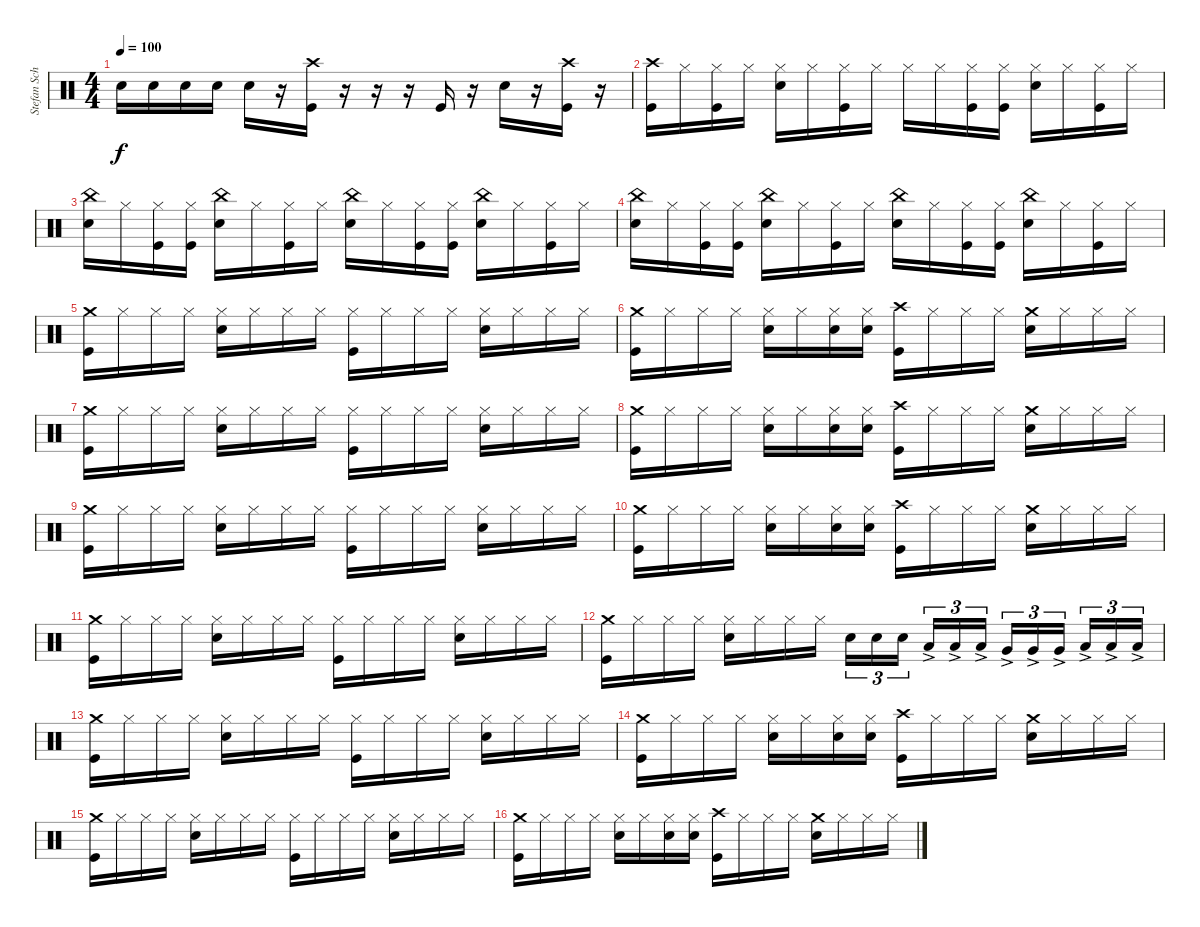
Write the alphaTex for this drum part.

\track ("Stefan Schwarzmann" "Stefan Sch") {instrument percussion}
\staff {score}
\articulation defaults
\ts (4 4)
\tempo 100
\clef neutral
\ks c "Snare (hit) 2".16{dy f} "Snare (hit) 2".16 "Snare (hit) 2".16 "Snare (hit) 2".16 "Snare (hit) 2".16
r.16 ("Kick (hit)" "Crash high (hit)").16 r.16 r.16 r.16 "Kick (hit)".16 r.16 "Snare (hit) 2".16 r.16 ("Kick (hit)" "Crash high (hit)").16 r.16 |
("Kick (hit)" "Crash high (hit)").16 "Hi-Hat (closed)".16 ("Hi-Hat (closed)" "Kick (hit)").16 "Hi-Hat (closed)".16 ("Snare (hit) 2" "Hi-Hat (closed)").16 "Hi-Hat (closed)".16 ("Hi-Hat (closed)" "Kick (hit)").16 "Hi-Hat (closed)".16 "Hi-Hat (closed)".16 "Hi-Hat (closed)".16 ("Hi-Hat (closed)" "Kick (hit)").16 ("Hi-Hat (closed)" "Kick (hit)").16 ("Snare (hit) 2" "Hi-Hat (closed)").16 "Hi-Hat (closed)".16 ("Hi-Hat (closed)" "Kick (hit)").16 "Hi-Hat (closed)".16 |
("Snare (hit) 2" "China (hit)").16 "Hi-Hat (closed)".16 ("Hi-Hat (closed)" "Kick (hit)").16 ("Hi-Hat (closed)" "Kick (hit)").16 ("Snare (hit) 2" "China (hit)").16 "Hi-Hat (closed)".16 ("Hi-Hat (closed)" "Kick (hit)").16 "Hi-Hat (closed)".16 ("Snare (hit) 2" "China (hit)").16 "Hi-Hat (closed)".16 ("Hi-Hat (closed)" "Kick (hit)").16 ("Hi-Hat (closed)" "Kick (hit)").16 ("Snare (hit) 2" "China (hit)").16 "Hi-Hat (closed)".16 ("Hi-Hat (closed)" "Kick (hit)").16 "Hi-Hat (closed)".16 |
("Snare (hit) 2" "China (hit)").16 "Hi-Hat (closed)".16 ("Hi-Hat (closed)" "Kick (hit)").16 ("Hi-Hat (closed)" "Kick (hit)").16 ("Snare (hit) 2" "China (hit)").16 "Hi-Hat (closed)".16 ("Hi-Hat (closed)" "Kick (hit)").16 "Hi-Hat (closed)".16 ("Snare (hit) 2" "China (hit)").16 "Hi-Hat (closed)".16 ("Hi-Hat (closed)" "Kick (hit)").16 ("Hi-Hat (closed)" "Kick (hit)").16 ("Snare (hit) 2" "China (hit)").16 "Hi-Hat (closed)".16 ("Hi-Hat (closed)" "Kick (hit)").16 "Hi-Hat (closed)".16 |
("Kick (hit)" "Crash medium (hit)").16 "Hi-Hat (closed)".16 "Hi-Hat (closed)".16 "Hi-Hat (closed)".16 ("Snare (hit) 2" "Hi-Hat (closed)").16 "Hi-Hat (closed)".16 "Hi-Hat (closed)".16 "Hi-Hat (closed)".16 ("Kick (hit)" "Hi-Hat (closed)").16 "Hi-Hat (closed)".16 "Hi-Hat (closed)".16 "Hi-Hat (closed)".16 ("Snare (hit) 2" "Hi-Hat (closed)").16 "Hi-Hat (closed)".16 "Hi-Hat (closed)".16 "Hi-Hat (closed)".16 |
("Kick (hit)" "Crash medium (hit)").16 "Hi-Hat (closed)".16 "Hi-Hat (closed)".16 "Hi-Hat (closed)".16 ("Snare (hit) 2" "Hi-Hat (closed)").16 "Hi-Hat (closed)".16 ("Hi-Hat (closed)" "Snare (hit) 2").16 ("Hi-Hat (closed)" "Snare (hit) 2").16 ("Kick (hit)" "Crash high (hit)").16 "Hi-Hat (closed)".16 "Hi-Hat (closed)".16 "Hi-Hat (closed)".16 ("Snare (hit) 2" "Crash medium (hit)").16 "Hi-Hat (closed)".16 "Hi-Hat (closed)".16 "Hi-Hat (closed)".16 |
("Kick (hit)" "Crash medium (hit)").16 "Hi-Hat (closed)".16 "Hi-Hat (closed)".16 "Hi-Hat (closed)".16 ("Snare (hit) 2" "Hi-Hat (closed)").16 "Hi-Hat (closed)".16 "Hi-Hat (closed)".16 "Hi-Hat (closed)".16 ("Kick (hit)" "Hi-Hat (closed)").16 "Hi-Hat (closed)".16 "Hi-Hat (closed)".16 "Hi-Hat (closed)".16 ("Snare (hit) 2" "Hi-Hat (closed)").16 "Hi-Hat (closed)".16 "Hi-Hat (closed)".16 "Hi-Hat (closed)".16 |
("Kick (hit)" "Crash medium (hit)").16 "Hi-Hat (closed)".16 "Hi-Hat (closed)".16 "Hi-Hat (closed)".16 ("Snare (hit) 2" "Hi-Hat (closed)").16 "Hi-Hat (closed)".16 ("Hi-Hat (closed)" "Snare (hit) 2").16 ("Hi-Hat (closed)" "Snare (hit) 2").16 ("Kick (hit)" "Crash high (hit)").16 "Hi-Hat (closed)".16 "Hi-Hat (closed)".16 "Hi-Hat (closed)".16 ("Snare (hit) 2" "Crash medium (hit)").16 "Hi-Hat (closed)".16 "Hi-Hat (closed)".16 "Hi-Hat (closed)".16 |
("Kick (hit)" "Crash medium (hit)").16 "Hi-Hat (closed)".16 "Hi-Hat (closed)".16 "Hi-Hat (closed)".16 ("Snare (hit) 2" "Hi-Hat (closed)").16 "Hi-Hat (closed)".16 "Hi-Hat (closed)".16 "Hi-Hat (closed)".16 ("Kick (hit)" "Hi-Hat (closed)").16 "Hi-Hat (closed)".16 "Hi-Hat (closed)".16 "Hi-Hat (closed)".16 ("Snare (hit) 2" "Hi-Hat (closed)").16 "Hi-Hat (closed)".16 "Hi-Hat (closed)".16 "Hi-Hat (closed)".16 |
("Kick (hit)" "Crash medium (hit)").16 "Hi-Hat (closed)".16 "Hi-Hat (closed)".16 "Hi-Hat (closed)".16 ("Snare (hit) 2" "Hi-Hat (closed)").16 "Hi-Hat (closed)".16 ("Hi-Hat (closed)" "Snare (hit) 2").16 ("Hi-Hat (closed)" "Snare (hit) 2").16 ("Kick (hit)" "Crash high (hit)").16 "Hi-Hat (closed)".16 "Hi-Hat (closed)".16 "Hi-Hat (closed)".16 ("Snare (hit) 2" "Crash medium (hit)").16 "Hi-Hat (closed)".16 "Hi-Hat (closed)".16 "Hi-Hat (closed)".16 |
("Kick (hit)" "Crash medium (hit)").16 "Hi-Hat (closed)".16 "Hi-Hat (closed)".16 "Hi-Hat (closed)".16 ("Snare (hit) 2" "Hi-Hat (closed)").16 "Hi-Hat (closed)".16 "Hi-Hat (closed)".16 "Hi-Hat (closed)".16 ("Kick (hit)" "Hi-Hat (closed)").16 "Hi-Hat (closed)".16 "Hi-Hat (closed)".16 "Hi-Hat (closed)".16 ("Snare (hit) 2" "Hi-Hat (closed)").16 "Hi-Hat (closed)".16 "Hi-Hat (closed)".16 "Hi-Hat (closed)".16 |
("Kick (hit)" "Crash medium (hit)").16 "Hi-Hat (closed)".16 "Hi-Hat (closed)".16 "Hi-Hat (closed)".16 ("Snare (hit) 2" "Hi-Hat (closed)").16 "Hi-Hat (closed)".16 "Hi-Hat (closed)".16 "Hi-Hat (closed)".16 "Snare (hit) 2".16{tu (3 2)} "Snare (hit) 2".16{tu (3 2)} "Snare (hit) 2".16{tu (3 2)} "Low Tom (hit)"{ac}.16{tu (3 2)} "Low Tom (hit)"{ac}.16{tu (3 2)} "Low Tom (hit)"{ac}.16{tu (3 2)} "Very Low Tom (hit)"{ac}.16{tu (3 2)} "Very Low Tom (hit)"{ac}.16{tu (3 2)} "Very Low Tom (hit)"{ac}.16{tu (3 2)} "Low Floor Tom (hit)"{ac}.16{tu (3 2)} "Low Floor Tom (hit)"{ac}.16{tu (3 2)} "Low Floor Tom (hit)"{ac}.16{tu (3 2)} |
("Kick (hit)" "Crash medium (hit)").16 "Hi-Hat (closed)".16 "Hi-Hat (closed)".16 "Hi-Hat (closed)".16 ("Snare (hit) 2" "Hi-Hat (closed)").16 "Hi-Hat (closed)".16 "Hi-Hat (closed)".16 "Hi-Hat (closed)".16 ("Kick (hit)" "Hi-Hat (closed)").16 "Hi-Hat (closed)".16 "Hi-Hat (closed)".16 "Hi-Hat (closed)".16 ("Snare (hit) 2" "Hi-Hat (closed)").16 "Hi-Hat (closed)".16 "Hi-Hat (closed)".16 "Hi-Hat (closed)".16 |
("Kick (hit)" "Crash medium (hit)").16 "Hi-Hat (closed)".16 "Hi-Hat (closed)".16 "Hi-Hat (closed)".16 ("Snare (hit) 2" "Hi-Hat (closed)").16 "Hi-Hat (closed)".16 ("Hi-Hat (closed)" "Snare (hit) 2").16 ("Hi-Hat (closed)" "Snare (hit) 2").16 ("Kick (hit)" "Crash high (hit)").16 "Hi-Hat (closed)".16 "Hi-Hat (closed)".16 "Hi-Hat (closed)".16 ("Snare (hit) 2" "Crash medium (hit)").16 "Hi-Hat (closed)".16 "Hi-Hat (closed)".16 "Hi-Hat (closed)".16 |
("Kick (hit)" "Crash medium (hit)").16 "Hi-Hat (closed)".16 "Hi-Hat (closed)".16 "Hi-Hat (closed)".16 ("Snare (hit) 2" "Hi-Hat (closed)").16 "Hi-Hat (closed)".16 "Hi-Hat (closed)".16 "Hi-Hat (closed)".16 ("Kick (hit)" "Hi-Hat (closed)").16 "Hi-Hat (closed)".16 "Hi-Hat (closed)".16 "Hi-Hat (closed)".16 ("Snare (hit) 2" "Hi-Hat (closed)").16 "Hi-Hat (closed)".16 "Hi-Hat (closed)".16 "Hi-Hat (closed)".16 |
("Kick (hit)" "Crash medium (hit)").16 "Hi-Hat (closed)".16 "Hi-Hat (closed)".16 "Hi-Hat (closed)".16 ("Snare (hit) 2" "Hi-Hat (closed)").16 "Hi-Hat (closed)".16 ("Hi-Hat (closed)" "Snare (hit) 2").16 ("Hi-Hat (closed)" "Snare (hit) 2").16 ("Kick (hit)" "Crash high (hit)").16 "Hi-Hat (closed)".16 "Hi-Hat (closed)".16 "Hi-Hat (closed)".16 ("Snare (hit) 2" "Crash medium (hit)").16 "Hi-Hat (closed)".16 "Hi-Hat (closed)".16 "Hi-Hat (closed)".16
